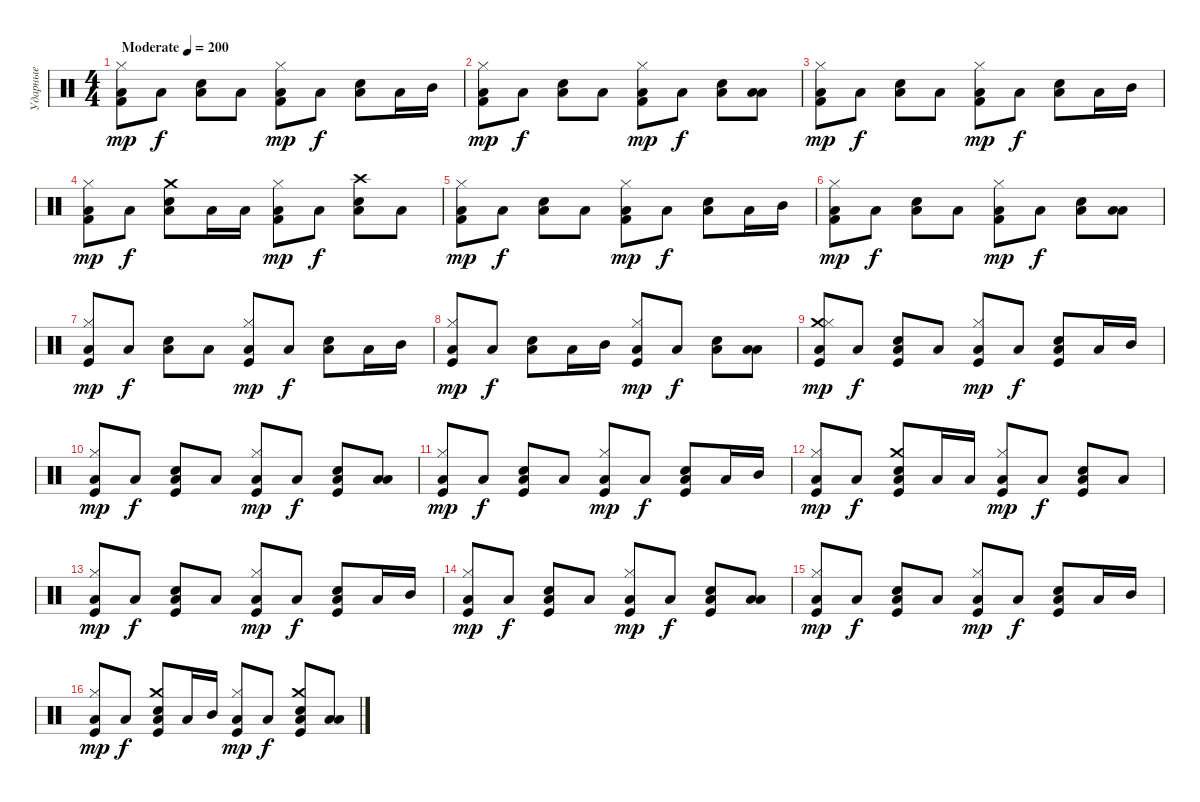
\track ("Ударные" "Ударные") {instrument percussion}
\staff {score}
\articulation defaults
\ts (4 4)
\tempo (200 "Moderate")
\clef neutral
\ks c
("Low Floor Tom (hit)" "Kick (hit) 2" "Hi-Hat (closed)").8{dy mp} "Low Floor Tom (hit)".8{dy f} ("Snare (hit) 2" "Low Floor Tom (hit)").8 "Low Floor Tom (hit)".8 ("Low Floor Tom (hit)" "Kick (hit) 2" "Hi-Hat (closed)").8{dy mp} "Low Floor Tom (hit)".8{dy f} ("Snare (hit) 2" "Low Floor Tom (hit)").8 "Low Floor Tom (hit)".16 "Mid Tom (hit)".16 |
("Low Floor Tom (hit)" "Kick (hit) 2" "Hi-Hat (closed)").8{dy mp} "Low Floor Tom (hit)".8{dy f} ("Snare (hit) 2" "Low Floor Tom (hit)").8 "Low Floor Tom (hit)".8 ("Low Floor Tom (hit)" "Kick (hit) 2" "Hi-Hat (closed)").8{dy mp} "Low Floor Tom (hit)".8{dy f} ("Snare (hit) 2" "Low Floor Tom (hit)").8 ("Low Tom (hit)" "Low Floor Tom (hit)").8 |
("Low Floor Tom (hit)" "Kick (hit) 2" "Hi-Hat (closed)").8{dy mp} "Low Floor Tom (hit)".8{dy f} ("Snare (hit) 2" "Low Floor Tom (hit)").8 "Low Floor Tom (hit)".8 ("Low Floor Tom (hit)" "Kick (hit) 2" "Hi-Hat (closed)").8{dy mp} "Low Floor Tom (hit)".8{dy f} ("Snare (hit) 2" "Low Floor Tom (hit)").8 "Low Floor Tom (hit)".16 "Mid Tom (hit)".16 |
("Low Floor Tom (hit)" "Kick (hit) 2" "Hi-Hat (closed)").8{dy mp} "Low Floor Tom (hit)".8{dy f} ("Crash medium (hit)" "Snare (hit) 2" "Low Floor Tom (hit)").8 "Low Floor Tom (hit)".16 "Low Tom (hit)".16 ("Low Floor Tom (hit)" "Kick (hit) 2" "Hi-Hat (closed)").8{dy mp} "Low Floor Tom (hit)".8{dy f} ("Crash high (hit)" "Snare (hit) 2" "Low Floor Tom (hit)").8 "Low Floor Tom (hit)".8 |
("Low Floor Tom (hit)" "Kick (hit) 2" "Hi-Hat (closed)").8{dy mp} "Low Floor Tom (hit)".8{dy f} ("Snare (hit) 2" "Low Floor Tom (hit)").8 "Low Floor Tom (hit)".8 ("Low Floor Tom (hit)" "Kick (hit) 2" "Hi-Hat (closed)").8{dy mp} "Low Floor Tom (hit)".8{dy f} ("Snare (hit) 2" "Low Floor Tom (hit)").8 "Low Floor Tom (hit)".16 "Mid Tom (hit)".16 |
("Low Floor Tom (hit)" "Kick (hit) 2" "Hi-Hat (closed)").8{dy mp} "Low Floor Tom (hit)".8{dy f} ("Snare (hit) 2" "Low Floor Tom (hit)").8 "Low Floor Tom (hit)".8 ("Low Floor Tom (hit)" "Kick (hit) 2" "Hi-Hat (closed)").8{dy mp} "Low Floor Tom (hit)".8{dy f} ("Snare (hit) 2" "Low Floor Tom (hit)").8 ("Low Tom (hit)" "Low Floor Tom (hit)").8 |
("Low Floor Tom (hit)" "Kick (hit)" "Hi-Hat (closed)").8{dy mp} "Low Floor Tom (hit)".8{dy f} ("Snare (hit) 2" "Low Floor Tom (hit)").8 "Low Floor Tom (hit)".8 ("Low Floor Tom (hit)" "Kick (hit)" "Hi-Hat (closed)").8{dy mp} "Low Floor Tom (hit)".8{dy f} ("Snare (hit) 2" "Low Floor Tom (hit)").8 "Low Floor Tom (hit)".16 "Mid Tom (hit)".16 |
("Low Floor Tom (hit)" "Kick (hit)" "Hi-Hat (closed)").8{dy mp} "Low Floor Tom (hit)".8{dy f} ("Snare (hit) 2" "Low Floor Tom (hit)").8 "Low Floor Tom (hit)".16 "Mid Tom (hit)".16 ("Low Floor Tom (hit)" "Kick (hit)" "Hi-Hat (closed)").8{dy mp} "Low Floor Tom (hit)".8{dy f} ("Snare (hit) 2" "Low Floor Tom (hit)").8 ("Low Tom (hit)" "Low Floor Tom (hit)").8 |
("Crash medium (hit)" "Low Floor Tom (hit)" "Kick (hit)" "Hi-Hat (closed)").8{dy mp} "Low Floor Tom (hit)".8{dy f} ("Snare (hit) 2" "Low Floor Tom (hit)" "Kick (hit)").8 "Low Floor Tom (hit)".8 ("Low Floor Tom (hit)" "Kick (hit)" "Hi-Hat (closed)").8{dy mp} "Low Floor Tom (hit)".8{dy f} ("Snare (hit) 2" "Low Floor Tom (hit)" "Kick (hit)").8 "Low Floor Tom (hit)".16 "Mid Tom (hit)".16 |
("Low Floor Tom (hit)" "Kick (hit)" "Hi-Hat (closed)").8{dy mp} "Low Floor Tom (hit)".8{dy f} ("Snare (hit) 2" "Low Floor Tom (hit)" "Kick (hit)").8 "Low Floor Tom (hit)".8 ("Low Floor Tom (hit)" "Kick (hit)" "Hi-Hat (closed)").8{dy mp} "Low Floor Tom (hit)".8{dy f} ("Snare (hit) 2" "Low Floor Tom (hit)" "Kick (hit)").8 ("Low Tom (hit)" "Low Floor Tom (hit)").8 |
("Low Floor Tom (hit)" "Kick (hit)" "Hi-Hat (closed)").8{dy mp} "Low Floor Tom (hit)".8{dy f} ("Snare (hit) 2" "Low Floor Tom (hit)" "Kick (hit)").8 "Low Floor Tom (hit)".8 ("Low Floor Tom (hit)" "Kick (hit)" "Hi-Hat (closed)").8{dy mp} "Low Floor Tom (hit)".8{dy f} ("Snare (hit) 2" "Low Floor Tom (hit)" "Kick (hit)").8 "Low Floor Tom (hit)".16 "Mid Tom (hit)".16 |
("Low Floor Tom (hit)" "Kick (hit)" "Hi-Hat (closed)").8{dy mp} "Low Floor Tom (hit)".8{dy f} ("Crash medium (hit)" "Snare (hit) 2" "Low Floor Tom (hit)" "Kick (hit)").8 "Low Floor Tom (hit)".16 "Low Tom (hit)".16 ("Low Floor Tom (hit)" "Kick (hit)" "Hi-Hat (closed)").8{dy mp} "Low Floor Tom (hit)".8{dy f} ("Snare (hit) 2" "Low Floor Tom (hit)" "Kick (hit)").8 "Low Floor Tom (hit)".8 |
("Low Floor Tom (hit)" "Kick (hit)" "Hi-Hat (closed)").8{dy mp} "Low Floor Tom (hit)".8{dy f} ("Snare (hit) 2" "Low Floor Tom (hit)" "Kick (hit)").8 "Low Floor Tom (hit)".8 ("Low Floor Tom (hit)" "Kick (hit)" "Hi-Hat (closed)").8{dy mp} "Low Floor Tom (hit)".8{dy f} ("Snare (hit) 2" "Low Floor Tom (hit)" "Kick (hit)").8 "Low Floor Tom (hit)".16 "Mid Tom (hit)".16 |
("Low Floor Tom (hit)" "Kick (hit)" "Hi-Hat (closed)").8{dy mp} "Low Floor Tom (hit)".8{dy f} ("Snare (hit) 2" "Low Floor Tom (hit)" "Kick (hit)").8 "Low Floor Tom (hit)".8 ("Low Floor Tom (hit)" "Kick (hit)" "Hi-Hat (closed)").8{dy mp} "Low Floor Tom (hit)".8{dy f} ("Snare (hit) 2" "Low Floor Tom (hit)" "Kick (hit)").8 ("Low Tom (hit)" "Low Floor Tom (hit)").8 |
("Low Floor Tom (hit)" "Kick (hit)" "Hi-Hat (closed)").8{dy mp} "Low Floor Tom (hit)".8{dy f} ("Snare (hit) 2" "Low Floor Tom (hit)" "Kick (hit)").8 "Low Floor Tom (hit)".8 ("Low Floor Tom (hit)" "Kick (hit)" "Hi-Hat (closed)").8{dy mp} "Low Floor Tom (hit)".8{dy f} ("Snare (hit) 2" "Low Floor Tom (hit)" "Kick (hit)").8 "Low Floor Tom (hit)".16 "Mid Tom (hit)".16 |
("Low Floor Tom (hit)" "Kick (hit)" "Hi-Hat (closed)").8{dy mp} "Low Floor Tom (hit)".8{dy f} ("Crash medium (hit)" "Snare (hit) 2" "Low Floor Tom (hit)" "Kick (hit)").8 "Low Floor Tom (hit)".16 "Mid Tom (hit)".16 ("Low Floor Tom (hit)" "Kick (hit)" "Hi-Hat (closed)").8{dy mp} "Low Floor Tom (hit)".8{dy f} ("Crash medium (hit)" "Snare (hit) 2" "Low Floor Tom (hit)" "Kick (hit)").8 ("Low Tom (hit)" "Low Floor Tom (hit)").8
